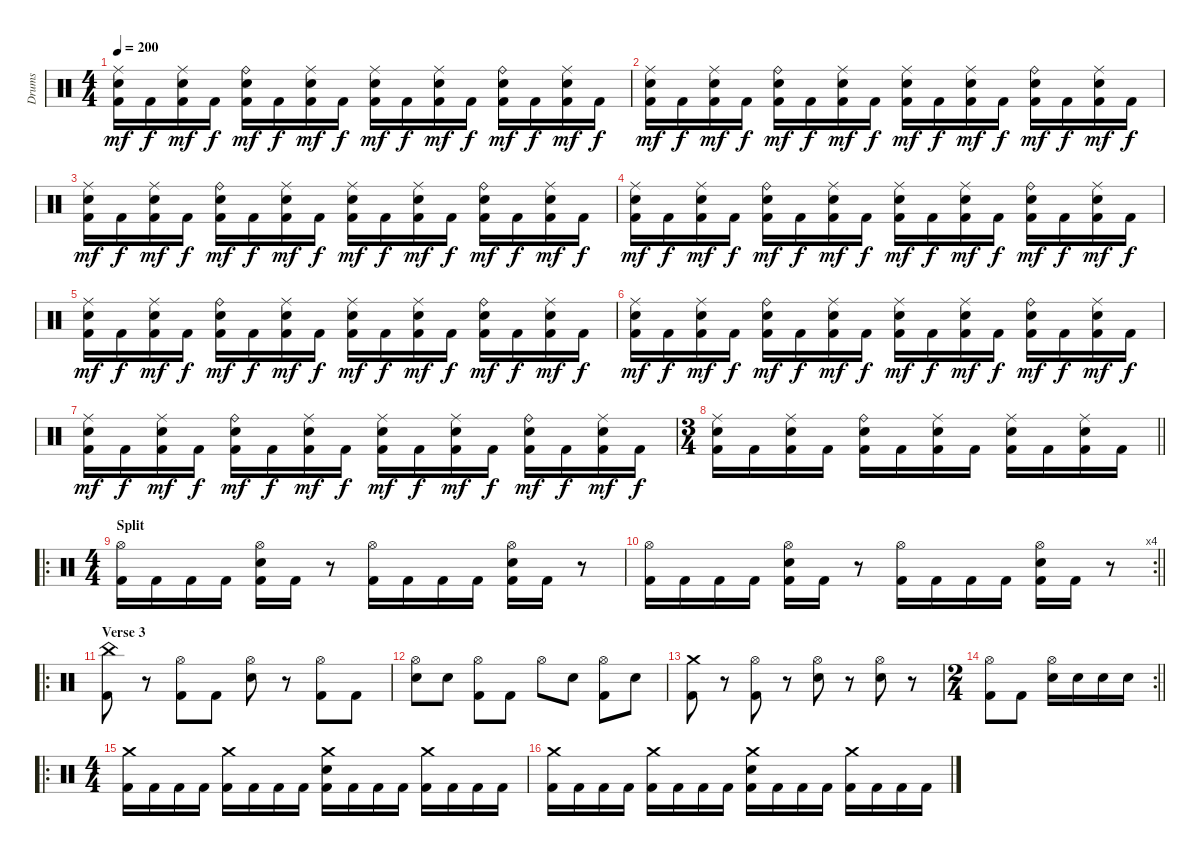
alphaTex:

\track ("Drums" "Drums") {instrument percussion}
\staff {score}
\articulation defaults
\ts (4 4)
\tempo 200
\clef neutral
\ks c
("Ride (middle)" "Snare (hit) 2" "Kick (hit) 2").16{dy mf} "Kick (hit) 2".16{dy f} ("Ride (middle)" "Snare (hit) 2" "Kick (hit) 2").16{dy mf} "Kick (hit) 2".16{dy f} ("Ride (bell)" "Snare (hit) 2" "Kick (hit) 2").16{dy mf} "Kick (hit) 2".16{dy f} ("Ride (middle)" "Snare (hit) 2" "Kick (hit) 2").16{dy mf} "Kick (hit) 2".16{dy f} ("Ride (middle)" "Snare (hit) 2" "Kick (hit) 2").16{dy mf} "Kick (hit) 2".16{dy f} ("Ride (middle)" "Snare (hit) 2" "Kick (hit) 2").16{dy mf} "Kick (hit) 2".16{dy f} ("Ride (bell)" "Snare (hit) 2" "Kick (hit) 2").16{dy mf} "Kick (hit) 2".16{dy f} ("Ride (middle)" "Snare (hit) 2" "Kick (hit) 2").16{dy mf} "Kick (hit) 2".16{dy f} |
("Ride (middle)" "Snare (hit) 2" "Kick (hit) 2").16{dy mf} "Kick (hit) 2".16{dy f} ("Ride (middle)" "Snare (hit) 2" "Kick (hit) 2").16{dy mf} "Kick (hit) 2".16{dy f} ("Ride (bell)" "Snare (hit) 2" "Kick (hit) 2").16{dy mf} "Kick (hit) 2".16{dy f} ("Ride (middle)" "Snare (hit) 2" "Kick (hit) 2").16{dy mf} "Kick (hit) 2".16{dy f} ("Ride (middle)" "Snare (hit) 2" "Kick (hit) 2").16{dy mf} "Kick (hit) 2".16{dy f} ("Ride (middle)" "Snare (hit) 2" "Kick (hit) 2").16{dy mf} "Kick (hit) 2".16{dy f} ("Ride (bell)" "Snare (hit) 2" "Kick (hit) 2").16{dy mf} "Kick (hit) 2".16{dy f} ("Ride (middle)" "Snare (hit) 2" "Kick (hit) 2").16{dy mf} "Kick (hit) 2".16{dy f} |
("Ride (middle)" "Snare (hit) 2" "Kick (hit) 2").16{dy mf} "Kick (hit) 2".16{dy f} ("Ride (middle)" "Snare (hit) 2" "Kick (hit) 2").16{dy mf} "Kick (hit) 2".16{dy f} ("Ride (bell)" "Snare (hit) 2" "Kick (hit) 2").16{dy mf} "Kick (hit) 2".16{dy f} ("Ride (middle)" "Snare (hit) 2" "Kick (hit) 2").16{dy mf} "Kick (hit) 2".16{dy f} ("Ride (middle)" "Snare (hit) 2" "Kick (hit) 2").16{dy mf} "Kick (hit) 2".16{dy f} ("Ride (middle)" "Snare (hit) 2" "Kick (hit) 2").16{dy mf} "Kick (hit) 2".16{dy f} ("Ride (bell)" "Snare (hit) 2" "Kick (hit) 2").16{dy mf} "Kick (hit) 2".16{dy f} ("Ride (middle)" "Snare (hit) 2" "Kick (hit) 2").16{dy mf} "Kick (hit) 2".16{dy f} |
("Ride (middle)" "Snare (hit) 2" "Kick (hit) 2").16{dy mf} "Kick (hit) 2".16{dy f} ("Ride (middle)" "Snare (hit) 2" "Kick (hit) 2").16{dy mf} "Kick (hit) 2".16{dy f} ("Ride (bell)" "Snare (hit) 2" "Kick (hit) 2").16{dy mf} "Kick (hit) 2".16{dy f} ("Ride (middle)" "Snare (hit) 2" "Kick (hit) 2").16{dy mf} "Kick (hit) 2".16{dy f} ("Ride (middle)" "Snare (hit) 2" "Kick (hit) 2").16{dy mf} "Kick (hit) 2".16{dy f} ("Ride (middle)" "Snare (hit) 2" "Kick (hit) 2").16{dy mf} "Kick (hit) 2".16{dy f} ("Ride (bell)" "Snare (hit) 2" "Kick (hit) 2").16{dy mf} "Kick (hit) 2".16{dy f} ("Ride (middle)" "Snare (hit) 2" "Kick (hit) 2").16{dy mf} "Kick (hit) 2".16{dy f} |
("Ride (middle)" "Snare (hit) 2" "Kick (hit) 2").16{dy mf} "Kick (hit) 2".16{dy f} ("Ride (middle)" "Snare (hit) 2" "Kick (hit) 2").16{dy mf} "Kick (hit) 2".16{dy f} ("Ride (bell)" "Snare (hit) 2" "Kick (hit) 2").16{dy mf} "Kick (hit) 2".16{dy f} ("Ride (middle)" "Snare (hit) 2" "Kick (hit) 2").16{dy mf} "Kick (hit) 2".16{dy f} ("Ride (middle)" "Snare (hit) 2" "Kick (hit) 2").16{dy mf} "Kick (hit) 2".16{dy f} ("Ride (middle)" "Snare (hit) 2" "Kick (hit) 2").16{dy mf} "Kick (hit) 2".16{dy f} ("Ride (bell)" "Snare (hit) 2" "Kick (hit) 2").16{dy mf} "Kick (hit) 2".16{dy f} ("Ride (middle)" "Snare (hit) 2" "Kick (hit) 2").16{dy mf} "Kick (hit) 2".16{dy f} |
("Ride (middle)" "Snare (hit) 2" "Kick (hit) 2").16{dy mf} "Kick (hit) 2".16{dy f} ("Ride (middle)" "Snare (hit) 2" "Kick (hit) 2").16{dy mf} "Kick (hit) 2".16{dy f} ("Ride (bell)" "Snare (hit) 2" "Kick (hit) 2").16{dy mf} "Kick (hit) 2".16{dy f} ("Ride (middle)" "Snare (hit) 2" "Kick (hit) 2").16{dy mf} "Kick (hit) 2".16{dy f} ("Ride (middle)" "Snare (hit) 2" "Kick (hit) 2").16{dy mf} "Kick (hit) 2".16{dy f} ("Ride (middle)" "Snare (hit) 2" "Kick (hit) 2").16{dy mf} "Kick (hit) 2".16{dy f} ("Ride (bell)" "Snare (hit) 2" "Kick (hit) 2").16{dy mf} "Kick (hit) 2".16{dy f} ("Ride (middle)" "Snare (hit) 2" "Kick (hit) 2").16{dy mf} "Kick (hit) 2".16{dy f} |
("Ride (middle)" "Snare (hit) 2" "Kick (hit) 2").16{dy mf} "Kick (hit) 2".16{dy f} ("Ride (middle)" "Snare (hit) 2" "Kick (hit) 2").16{dy mf} "Kick (hit) 2".16{dy f} ("Ride (bell)" "Snare (hit) 2" "Kick (hit) 2").16{dy mf} "Kick (hit) 2".16{dy f} ("Ride (middle)" "Snare (hit) 2" "Kick (hit) 2").16{dy mf} "Kick (hit) 2".16{dy f} ("Ride (middle)" "Snare (hit) 2" "Kick (hit) 2").16{dy mf} "Kick (hit) 2".16{dy f} ("Ride (middle)" "Snare (hit) 2" "Kick (hit) 2").16{dy mf} "Kick (hit) 2".16{dy f} ("Ride (bell)" "Snare (hit) 2" "Kick (hit) 2").16{dy mf} "Kick (hit) 2".16{dy f} ("Ride (middle)" "Snare (hit) 2" "Kick (hit) 2").16{dy mf} "Kick (hit) 2".16{dy f} |
\ts (3 4)
\barLineRight lightlight
("Ride (middle)" "Snare (hit) 2" "Kick (hit) 2").16 "Kick (hit) 2".16 ("Ride (middle)" "Snare (hit) 2" "Kick (hit) 2").16 "Kick (hit) 2".16 ("Ride (bell)" "Snare (hit) 2" "Kick (hit) 2").16 "Kick (hit) 2".16 ("Ride (middle)" "Snare (hit) 2" "Kick (hit) 2").16 "Kick (hit) 2".16 ("Ride (middle)" "Snare (hit) 2" "Kick (hit) 2").16 "Kick (hit) 2".16 ("Ride (middle)" "Snare (hit) 2" "Kick (hit) 2").16 "Kick (hit) 2".16 |
\ro
\ts (4 4)
\section ("" "Split")
("Hi-Hat (open)" "Kick (hit) 2").16 "Kick (hit) 2".16 "Kick (hit) 2".16 "Kick (hit) 2".16 ("Hi-Hat (open)" "Snare (hit) 2" "Kick (hit) 2").16 "Kick (hit) 2".16 r.8 ("Hi-Hat (open)" "Kick (hit) 2").16 "Kick (hit) 2".16 "Kick (hit) 2".16 "Kick (hit) 2".16 ("Hi-Hat (open)" "Snare (hit) 2" "Kick (hit) 2").16 "Kick (hit) 2".16 r.8 |
\rc 4
\barLineRight lightlight
("Hi-Hat (open)" "Kick (hit) 2").16 "Kick (hit) 2".16 "Kick (hit) 2".16 "Kick (hit) 2".16 ("Hi-Hat (open)" "Snare (hit) 2" "Kick (hit) 2").16 "Kick (hit) 2".16 r.8 ("Hi-Hat (open)" "Kick (hit) 2").16 "Kick (hit) 2".16 "Kick (hit) 2".16 "Kick (hit) 2".16 ("Hi-Hat (open)" "Snare (hit) 2" "Kick (hit) 2").16 "Kick (hit) 2".16 r.8 |
\ro
\section ("" "Verse 3")
("China (hit)" "Kick (hit) 2").8 r.8 ("Hi-Hat (open)" "Kick (hit) 2").8 "Kick (hit) 2".8 ("Hi-Hat (open)" "Snare (hit) 2").8 r.8 ("Hi-Hat (open)" "Kick (hit) 2").8 "Kick (hit) 2".8 |
("Hi-Hat (open)" "Snare (hit) 2").8 "Snare (hit) 2".8 ("Hi-Hat (open)" "Kick (hit) 2").8 "Kick (hit) 2".8 "Hi-Hat (open)".8 "Snare (hit) 2".8 ("Hi-Hat (open)" "Kick (hit) 2").8 "Snare (hit) 2".8 |
("Crash medium (hit)" "Kick (hit) 2").8 r.8 ("Hi-Hat (open)" "Kick (hit) 2").8 r.8 ("Hi-Hat (open)" "Snare (hit) 2").8 r.8 ("Hi-Hat (open)" "Snare (hit) 2").8 r.8 |
\rc 2
\ts (2 4)
\barLineRight lightlight
("Hi-Hat (open)" "Kick (hit) 2").8 "Kick (hit) 2".8 ("Hi-Hat (open)" "Snare (hit) 2").16 "Snare (hit) 2".16 "Snare (hit) 2".16 "Snare (hit) 2".16 |
\ro
\ts (4 4)
("Crash medium (hit)" "Kick (hit) 2").16 "Kick (hit) 2".16 "Kick (hit) 2".16 "Kick (hit) 2".16 ("Crash medium (hit)" "Kick (hit) 2").16 "Kick (hit) 2".16 "Kick (hit) 2".16 "Kick (hit) 2".16 ("Crash medium (hit)" "Snare (hit) 2" "Kick (hit) 2").16 "Kick (hit) 2".16 "Kick (hit) 2".16 "Kick (hit) 2".16 ("Crash medium (hit)" "Kick (hit) 2").16 "Kick (hit) 2".16 "Kick (hit) 2".16 "Kick (hit) 2".16 |
("Crash medium (hit)" "Kick (hit) 2").16 "Kick (hit) 2".16 "Kick (hit) 2".16 "Kick (hit) 2".16 ("Crash medium (hit)" "Kick (hit) 2").16 "Kick (hit) 2".16 "Kick (hit) 2".16 "Kick (hit) 2".16 ("Crash medium (hit)" "Snare (hit) 2" "Kick (hit) 2").16 "Kick (hit) 2".16 "Kick (hit) 2".16 "Kick (hit) 2".16 ("Crash medium (hit)" "Kick (hit) 2").16 "Kick (hit) 2".16 "Kick (hit) 2".16 "Kick (hit) 2".16
